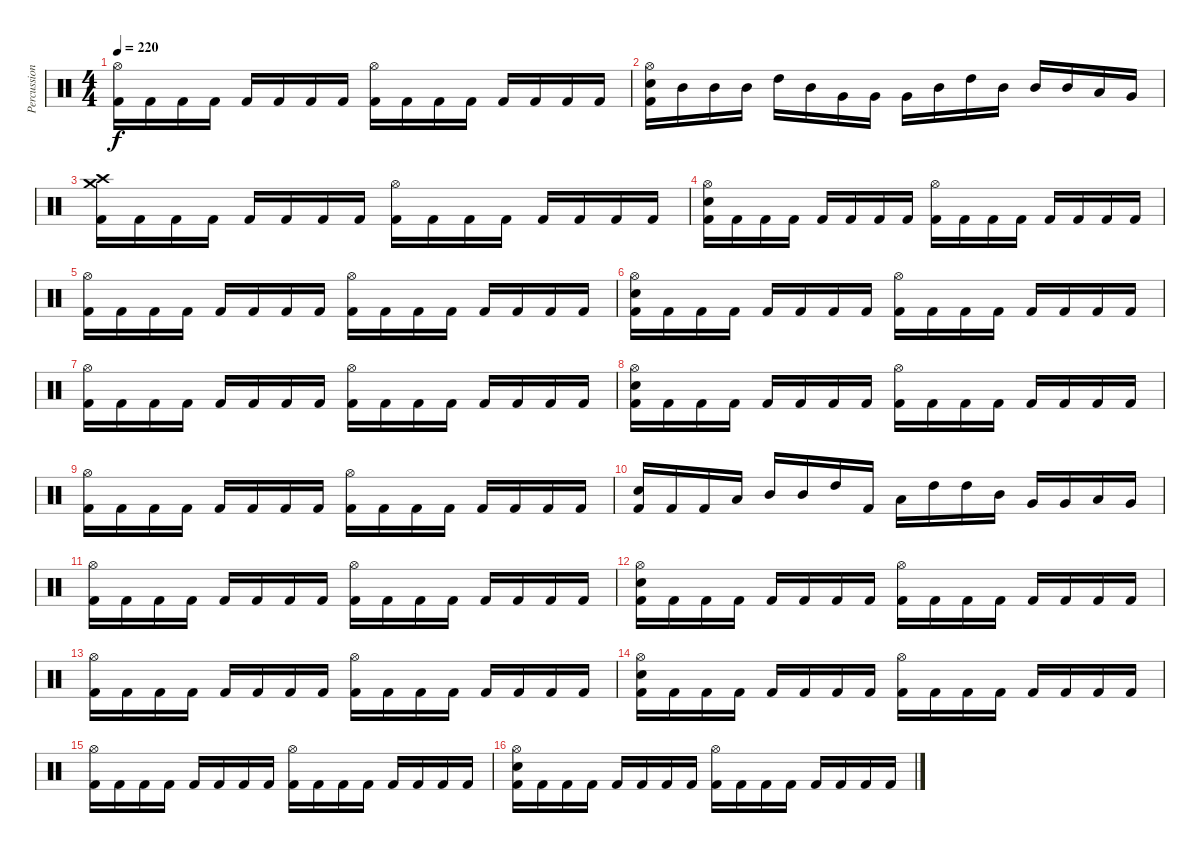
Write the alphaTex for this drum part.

\track ("Percussion" "Percussion") {instrument percussion}
\staff {score}
\articulation defaults
\ts (4 4)
\tempo 220
\clef neutral
\ks c
("Hi-Hat (open)" "Kick (hit) 2").16{dy f} "Kick (hit) 2".16 "Kick (hit) 2".16 "Kick (hit) 2".16 "Kick (hit) 2".16 "Kick (hit) 2".16 "Kick (hit) 2".16 "Kick (hit) 2".16 ("Hi-Hat (open)" "Kick (hit) 2").16 "Kick (hit) 2".16 "Kick (hit) 2".16 "Kick (hit) 2".16 "Kick (hit) 2".16 "Kick (hit) 2".16 "Kick (hit) 2".16 "Kick (hit) 2".16 |
("Hi-Hat (open)" "Electric Snare (hit)" "Kick (hit) 2").16 "Mid Tom (hit)".16 "Mid Tom (hit)".16 "Mid Tom (hit)".16 "High Tom (hit)".16 "Mid Tom (hit)".16 "Very Low Tom (hit)".16 "Very Low Tom (hit)".16 "Very Low Tom (hit)".16 "Mid Tom (hit)".16 "High Tom (hit)".16 "Mid Tom (hit)".16 "Mid Tom (hit)".16 "Mid Tom (hit)".16 "Low Tom (hit)".16 "Very Low Tom (hit)".16 |
("Crash medium (hit)" "Crash high (hit)" "Kick (hit) 2").16 "Kick (hit) 2".16 "Kick (hit) 2".16 "Kick (hit) 2".16 "Kick (hit) 2".16 "Kick (hit) 2".16 "Kick (hit) 2".16 "Kick (hit) 2".16 ("Hi-Hat (open)" "Kick (hit) 2").16 "Kick (hit) 2".16 "Kick (hit) 2".16 "Kick (hit) 2".16 "Kick (hit) 2".16 "Kick (hit) 2".16 "Kick (hit) 2".16 "Kick (hit) 2".16 |
("Hi-Hat (open)" "Electric Snare (hit)" "Kick (hit) 2").16 "Kick (hit) 2".16 "Kick (hit) 2".16 "Kick (hit) 2".16 "Kick (hit) 2".16 "Kick (hit) 2".16 "Kick (hit) 2".16 "Kick (hit) 2".16 ("Hi-Hat (open)" "Kick (hit) 2").16 "Kick (hit) 2".16 "Kick (hit) 2".16 "Kick (hit) 2".16 "Kick (hit) 2".16 "Kick (hit) 2".16 "Kick (hit) 2".16 "Kick (hit) 2".16 |
("Hi-Hat (open)" "Kick (hit) 2").16 "Kick (hit) 2".16 "Kick (hit) 2".16 "Kick (hit) 2".16 "Kick (hit) 2".16 "Kick (hit) 2".16 "Kick (hit) 2".16 "Kick (hit) 2".16 ("Hi-Hat (open)" "Kick (hit) 2").16 "Kick (hit) 2".16 "Kick (hit) 2".16 "Kick (hit) 2".16 "Kick (hit) 2".16 "Kick (hit) 2".16 "Kick (hit) 2".16 "Kick (hit) 2".16 |
("Hi-Hat (open)" "Electric Snare (hit)" "Kick (hit) 2").16 "Kick (hit) 2".16 "Kick (hit) 2".16 "Kick (hit) 2".16 "Kick (hit) 2".16 "Kick (hit) 2".16 "Kick (hit) 2".16 "Kick (hit) 2".16 ("Hi-Hat (open)" "Kick (hit) 2").16 "Kick (hit) 2".16 "Kick (hit) 2".16 "Kick (hit) 2".16 "Kick (hit) 2".16 "Kick (hit) 2".16 "Kick (hit) 2".16 "Kick (hit) 2".16 |
("Hi-Hat (open)" "Kick (hit) 2").16 "Kick (hit) 2".16 "Kick (hit) 2".16 "Kick (hit) 2".16 "Kick (hit) 2".16 "Kick (hit) 2".16 "Kick (hit) 2".16 "Kick (hit) 2".16 ("Hi-Hat (open)" "Kick (hit) 2").16 "Kick (hit) 2".16 "Kick (hit) 2".16 "Kick (hit) 2".16 "Kick (hit) 2".16 "Kick (hit) 2".16 "Kick (hit) 2".16 "Kick (hit) 2".16 |
("Hi-Hat (open)" "Electric Snare (hit)" "Kick (hit) 2").16 "Kick (hit) 2".16 "Kick (hit) 2".16 "Kick (hit) 2".16 "Kick (hit) 2".16 "Kick (hit) 2".16 "Kick (hit) 2".16 "Kick (hit) 2".16 ("Hi-Hat (open)" "Kick (hit) 2").16 "Kick (hit) 2".16 "Kick (hit) 2".16 "Kick (hit) 2".16 "Kick (hit) 2".16 "Kick (hit) 2".16 "Kick (hit) 2".16 "Kick (hit) 2".16 |
("Hi-Hat (open)" "Kick (hit) 2").16 "Kick (hit) 2".16 "Kick (hit) 2".16 "Kick (hit) 2".16 "Kick (hit) 2".16 "Kick (hit) 2".16 "Kick (hit) 2".16 "Kick (hit) 2".16 ("Hi-Hat (open)" "Kick (hit) 2").16 "Kick (hit) 2".16 "Kick (hit) 2".16 "Kick (hit) 2".16 "Kick (hit) 2".16 "Kick (hit) 2".16 "Kick (hit) 2".16 "Kick (hit) 2".16 |
("Electric Snare (hit)" "Kick (hit) 2").16 "Kick (hit) 2".16 "Kick (hit) 2".16 "Low Tom (hit)".16 "Mid Tom (hit)".16 "Mid Tom (hit)".16 "High Tom (hit)".16 "Kick (hit) 2".16 "Low Tom (hit)".16 "High Tom (hit)".16 "High Tom (hit)".16 "Mid Tom (hit)".16 "Very Low Tom (hit)".16 "Very Low Tom (hit)".16 "Low Tom (hit)".16 "Very Low Tom (hit)".16 |
("Hi-Hat (open)" "Kick (hit) 2").16 "Kick (hit) 2".16 "Kick (hit) 2".16 "Kick (hit) 2".16 "Kick (hit) 2".16 "Kick (hit) 2".16 "Kick (hit) 2".16 "Kick (hit) 2".16 ("Hi-Hat (open)" "Kick (hit) 2").16 "Kick (hit) 2".16 "Kick (hit) 2".16 "Kick (hit) 2".16 "Kick (hit) 2".16 "Kick (hit) 2".16 "Kick (hit) 2".16 "Kick (hit) 2".16 |
("Hi-Hat (open)" "Electric Snare (hit)" "Kick (hit) 2").16 "Kick (hit) 2".16 "Kick (hit) 2".16 "Kick (hit) 2".16 "Kick (hit) 2".16 "Kick (hit) 2".16 "Kick (hit) 2".16 "Kick (hit) 2".16 ("Hi-Hat (open)" "Kick (hit) 2").16 "Kick (hit) 2".16 "Kick (hit) 2".16 "Kick (hit) 2".16 "Kick (hit) 2".16 "Kick (hit) 2".16 "Kick (hit) 2".16 "Kick (hit) 2".16 |
("Hi-Hat (open)" "Kick (hit) 2").16 "Kick (hit) 2".16 "Kick (hit) 2".16 "Kick (hit) 2".16 "Kick (hit) 2".16 "Kick (hit) 2".16 "Kick (hit) 2".16 "Kick (hit) 2".16 ("Hi-Hat (open)" "Kick (hit) 2").16 "Kick (hit) 2".16 "Kick (hit) 2".16 "Kick (hit) 2".16 "Kick (hit) 2".16 "Kick (hit) 2".16 "Kick (hit) 2".16 "Kick (hit) 2".16 |
("Hi-Hat (open)" "Electric Snare (hit)" "Kick (hit) 2").16 "Kick (hit) 2".16 "Kick (hit) 2".16 "Kick (hit) 2".16 "Kick (hit) 2".16 "Kick (hit) 2".16 "Kick (hit) 2".16 "Kick (hit) 2".16 ("Hi-Hat (open)" "Kick (hit) 2").16 "Kick (hit) 2".16 "Kick (hit) 2".16 "Kick (hit) 2".16 "Kick (hit) 2".16 "Kick (hit) 2".16 "Kick (hit) 2".16 "Kick (hit) 2".16 |
("Hi-Hat (open)" "Kick (hit) 2").16 "Kick (hit) 2".16 "Kick (hit) 2".16 "Kick (hit) 2".16 "Kick (hit) 2".16 "Kick (hit) 2".16 "Kick (hit) 2".16 "Kick (hit) 2".16 ("Hi-Hat (open)" "Kick (hit) 2").16 "Kick (hit) 2".16 "Kick (hit) 2".16 "Kick (hit) 2".16 "Kick (hit) 2".16 "Kick (hit) 2".16 "Kick (hit) 2".16 "Kick (hit) 2".16 |
("Hi-Hat (open)" "Electric Snare (hit)" "Kick (hit) 2").16 "Kick (hit) 2".16 "Kick (hit) 2".16 "Kick (hit) 2".16 "Kick (hit) 2".16 "Kick (hit) 2".16 "Kick (hit) 2".16 "Kick (hit) 2".16 ("Hi-Hat (open)" "Kick (hit) 2").16 "Kick (hit) 2".16 "Kick (hit) 2".16 "Kick (hit) 2".16 "Kick (hit) 2".16 "Kick (hit) 2".16 "Kick (hit) 2".16 "Kick (hit) 2".16
